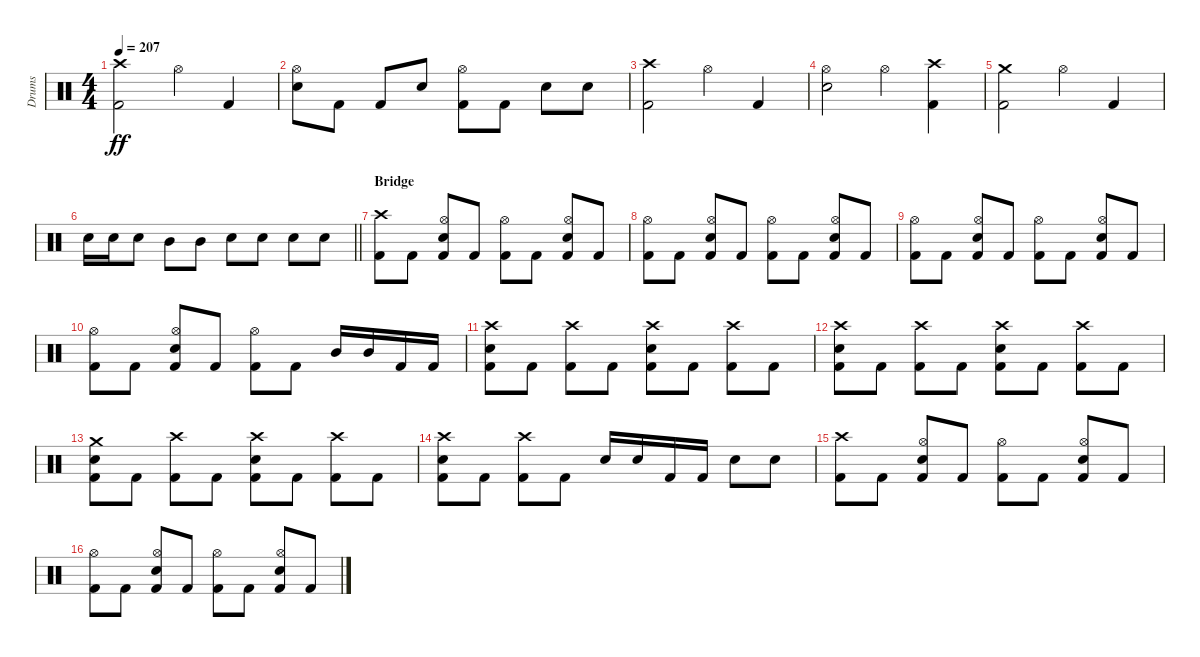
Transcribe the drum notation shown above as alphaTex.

\track ("Drums" "Drums") {instrument percussion}
\staff {score}
\articulation defaults
\ts (4 4)
\tempo 207
\clef neutral
\ks c
("Crash high (hit)" "Kick (hit) 2").2{dy ff} "Hi-Hat (open)".4 "Kick (hit) 2".4 |
("Hi-Hat (open)" "Snare (hit) 2").8 "Kick (hit) 2".8 "Kick (hit) 2".8 "Snare (hit) 2".8 ("Hi-Hat (open)" "Kick (hit) 2").8 "Kick (hit) 2".8 "Snare (hit) 2".8 "Snare (hit) 2".8 |
("Crash high (hit)" "Kick (hit) 2").2 "Hi-Hat (open)".4 "Kick (hit) 2".4 |
("Hi-Hat (open)" "Snare (hit) 2").2 "Hi-Hat (open)".4 ("Crash high (hit)" "Kick (hit) 2").4 |
("Crash medium (hit)" "Kick (hit) 2").2 "Hi-Hat (open)".4 "Kick (hit) 2".4 |
\barLineRight lightlight "Snare (hit) 2".16 "Snare (hit) 2".16 "Snare (hit) 2".8 "Mid Tom (hit)".8 "Mid Tom (hit)".8 "Snare (hit) 2".8 "Snare (hit) 2".8 "Snare (hit) 2".8 "Snare (hit) 2".8
|
\section ("" "Bridge")
("Crash high (hit)" "Kick (hit) 2").8 "Kick (hit) 2".8 ("Hi-Hat (open)" "Snare (hit) 2" "Kick (hit) 2").8 "Kick (hit) 2".8 ("Hi-Hat (open)" "Kick (hit) 2").8 "Kick (hit) 2".8 ("Hi-Hat (open)" "Snare (hit) 2" "Kick (hit) 2").8 "Kick (hit) 2".8 |
("Hi-Hat (open)" "Kick (hit) 2").8 "Kick (hit) 2".8 ("Hi-Hat (open)" "Snare (hit) 2" "Kick (hit) 2").8 "Kick (hit) 2".8 ("Hi-Hat (open)" "Kick (hit) 2").8 "Kick (hit) 2".8 ("Hi-Hat (open)" "Snare (hit) 2" "Kick (hit) 2").8 "Kick (hit) 2".8 |
("Hi-Hat (open)" "Kick (hit) 2").8 "Kick (hit) 2".8 ("Hi-Hat (open)" "Snare (hit) 2" "Kick (hit) 2").8 "Kick (hit) 2".8 ("Hi-Hat (open)" "Kick (hit) 2").8 "Kick (hit) 2".8 ("Hi-Hat (open)" "Snare (hit) 2" "Kick (hit) 2").8 "Kick (hit) 2".8 |
("Hi-Hat (open)" "Kick (hit) 2").8 "Kick (hit) 2".8 ("Hi-Hat (open)" "Snare (hit) 2" "Kick (hit) 2").8 "Kick (hit) 2".8 ("Hi-Hat (open)" "Kick (hit) 2").8 "Kick (hit) 2".8 "Mid Tom (hit)".16 "Mid Tom (hit)".16 "Kick (hit) 2".16 "Kick (hit) 2".16 |
("Crash high (hit)" "Snare (hit) 2" "Kick (hit) 2").8 "Kick (hit) 2".8 ("Crash high (hit)" "Kick (hit) 2").8 "Kick (hit) 2".8 ("Crash high (hit)" "Snare (hit) 2" "Kick (hit) 2").8 "Kick (hit) 2".8 ("Crash high (hit)" "Kick (hit) 2").8 "Kick (hit) 2".8 |
("Crash high (hit)" "Snare (hit) 2" "Kick (hit) 2").8 "Kick (hit) 2".8 ("Crash high (hit)" "Kick (hit) 2").8 "Kick (hit) 2".8 ("Crash high (hit)" "Snare (hit) 2" "Kick (hit) 2").8 "Kick (hit) 2".8 ("Crash high (hit)" "Kick (hit) 2").8 "Kick (hit) 2".8 |
("Crash medium (hit)" "Snare (hit) 2" "Kick (hit) 2").8 "Kick (hit) 2".8 ("Crash high (hit)" "Kick (hit) 2").8 "Kick (hit) 2".8 ("Crash high (hit)" "Snare (hit) 2" "Kick (hit) 2").8 "Kick (hit) 2".8 ("Crash high (hit)" "Kick (hit) 2").8 "Kick (hit) 2".8 |
("Crash high (hit)" "Snare (hit) 2" "Kick (hit) 2").8 "Kick (hit) 2".8 ("Crash high (hit)" "Kick (hit) 2").8 "Kick (hit) 2".8 "Snare (hit) 2".16 "Snare (hit) 2".16 "Kick (hit) 2".16 "Kick (hit) 2".16 "Snare (hit) 2".8 "Snare (hit) 2".8 |
("Crash high (hit)" "Kick (hit) 2").8 "Kick (hit) 2".8 ("Hi-Hat (open)" "Snare (hit) 2" "Kick (hit) 2").8 "Kick (hit) 2".8 ("Hi-Hat (open)" "Kick (hit) 2").8 "Kick (hit) 2".8 ("Hi-Hat (open)" "Snare (hit) 2" "Kick (hit) 2").8 "Kick (hit) 2".8 |
("Hi-Hat (open)" "Kick (hit) 2").8 "Kick (hit) 2".8 ("Hi-Hat (open)" "Snare (hit) 2" "Kick (hit) 2").8 "Kick (hit) 2".8 ("Hi-Hat (open)" "Kick (hit) 2").8 "Kick (hit) 2".8 ("Hi-Hat (open)" "Snare (hit) 2" "Kick (hit) 2").8 "Kick (hit) 2".8
